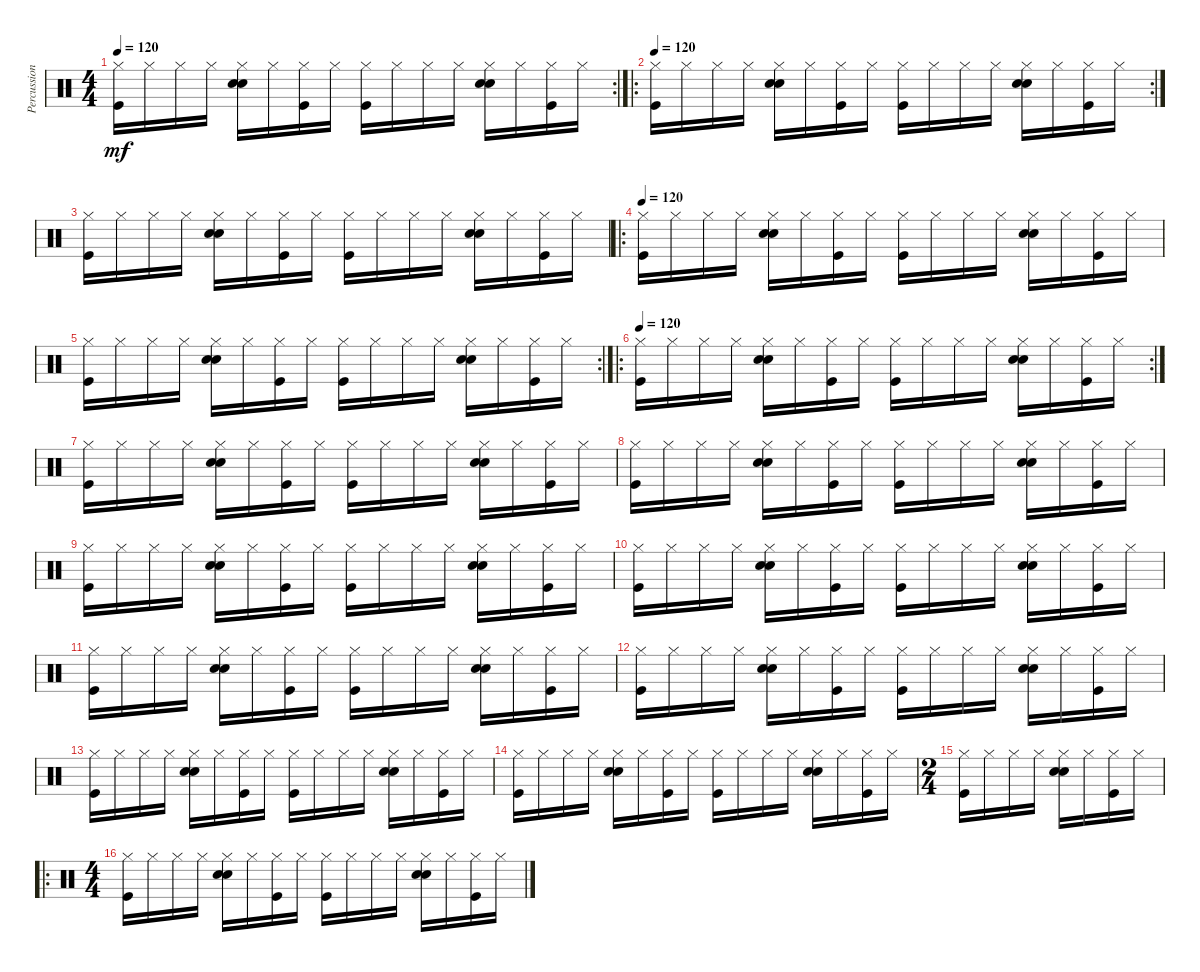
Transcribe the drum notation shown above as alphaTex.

\track ("Percussion" "Percussion") {instrument percussion}
\staff {score}
\articulation defaults
\rc 2
\ts (4 4)
\tempo 120
\clef neutral
\ks c
("Hi-Hat (closed)" "Kick (hit)").16{dy mf} "Hi-Hat (closed)".16 "Hi-Hat (closed)".16 "Hi-Hat (closed)".16 ("Hi-Hat (closed)" "Hand Clap (hit)" "Snare (hit) 2").16 "Hi-Hat (closed)".16 ("Hi-Hat (closed)" "Kick (hit)").16 "Hi-Hat (closed)".16 ("Hi-Hat (closed)" "Kick (hit)").16 "Hi-Hat (closed)".16 "Hi-Hat (closed)".16 "Hi-Hat (closed)".16 ("Hi-Hat (closed)" "Hand Clap (hit)" "Snare (hit) 2").16 "Hi-Hat (closed)".16 ("Hi-Hat (closed)" "Kick (hit)").16 "Hi-Hat (closed)".16 |
\ro
\rc 2
\tempo 120
("Hi-Hat (closed)" "Kick (hit)").16 "Hi-Hat (closed)".16 "Hi-Hat (closed)".16 "Hi-Hat (closed)".16 ("Hi-Hat (closed)" "Hand Clap (hit)" "Snare (hit) 2").16 "Hi-Hat (closed)".16 ("Hi-Hat (closed)" "Kick (hit)").16 "Hi-Hat (closed)".16 ("Hi-Hat (closed)" "Kick (hit)").16 "Hi-Hat (closed)".16 "Hi-Hat (closed)".16 "Hi-Hat (closed)".16 ("Hi-Hat (closed)" "Hand Clap (hit)" "Snare (hit) 2").16 "Hi-Hat (closed)".16 ("Hi-Hat (closed)" "Kick (hit)").16 "Hi-Hat (closed)".16 |
("Hi-Hat (closed)" "Kick (hit)").16 "Hi-Hat (closed)".16 "Hi-Hat (closed)".16 "Hi-Hat (closed)".16 ("Hi-Hat (closed)" "Hand Clap (hit)" "Snare (hit) 2").16 "Hi-Hat (closed)".16 ("Hi-Hat (closed)" "Kick (hit)").16 "Hi-Hat (closed)".16 ("Hi-Hat (closed)" "Kick (hit)").16 "Hi-Hat (closed)".16 "Hi-Hat (closed)".16 "Hi-Hat (closed)".16 ("Hi-Hat (closed)" "Hand Clap (hit)" "Snare (hit) 2").16 "Hi-Hat (closed)".16 ("Hi-Hat (closed)" "Kick (hit)").16 "Hi-Hat (closed)".16 |
\ro
\tempo 120
("Hi-Hat (closed)" "Kick (hit)").16 "Hi-Hat (closed)".16 "Hi-Hat (closed)".16 "Hi-Hat (closed)".16 ("Hi-Hat (closed)" "Hand Clap (hit)" "Snare (hit) 2").16 "Hi-Hat (closed)".16 ("Hi-Hat (closed)" "Kick (hit)").16 "Hi-Hat (closed)".16 ("Hi-Hat (closed)" "Kick (hit)").16 "Hi-Hat (closed)".16 "Hi-Hat (closed)".16 "Hi-Hat (closed)".16 ("Hi-Hat (closed)" "Hand Clap (hit)" "Snare (hit) 2").16 "Hi-Hat (closed)".16 ("Hi-Hat (closed)" "Kick (hit)").16 "Hi-Hat (closed)".16 |
\rc 2
("Hi-Hat (closed)" "Kick (hit)").16 "Hi-Hat (closed)".16 "Hi-Hat (closed)".16 "Hi-Hat (closed)".16 ("Hi-Hat (closed)" "Hand Clap (hit)" "Snare (hit) 2").16 "Hi-Hat (closed)".16 ("Hi-Hat (closed)" "Kick (hit)").16 "Hi-Hat (closed)".16 ("Hi-Hat (closed)" "Kick (hit)").16 "Hi-Hat (closed)".16 "Hi-Hat (closed)".16 "Hi-Hat (closed)".16 ("Hi-Hat (closed)" "Hand Clap (hit)" "Snare (hit) 2").16 "Hi-Hat (closed)".16 ("Hi-Hat (closed)" "Kick (hit)").16 "Hi-Hat (closed)".16 |
\ro
\rc 2
\tempo 120
("Hi-Hat (closed)" "Kick (hit)").16 "Hi-Hat (closed)".16 "Hi-Hat (closed)".16 "Hi-Hat (closed)".16 ("Hi-Hat (closed)" "Hand Clap (hit)" "Snare (hit) 2").16 "Hi-Hat (closed)".16 ("Hi-Hat (closed)" "Kick (hit)").16 "Hi-Hat (closed)".16 ("Hi-Hat (closed)" "Kick (hit)").16 "Hi-Hat (closed)".16 "Hi-Hat (closed)".16 "Hi-Hat (closed)".16 ("Hi-Hat (closed)" "Hand Clap (hit)" "Snare (hit) 2").16 "Hi-Hat (closed)".16 ("Hi-Hat (closed)" "Kick (hit)").16 "Hi-Hat (closed)".16 |
("Hi-Hat (closed)" "Kick (hit)").16 "Hi-Hat (closed)".16 "Hi-Hat (closed)".16 "Hi-Hat (closed)".16 ("Hi-Hat (closed)" "Hand Clap (hit)" "Snare (hit) 2").16 "Hi-Hat (closed)".16 ("Hi-Hat (closed)" "Kick (hit)").16 "Hi-Hat (closed)".16 ("Hi-Hat (closed)" "Kick (hit)").16 "Hi-Hat (closed)".16 "Hi-Hat (closed)".16 "Hi-Hat (closed)".16 ("Hi-Hat (closed)" "Hand Clap (hit)" "Snare (hit) 2").16 "Hi-Hat (closed)".16 ("Hi-Hat (closed)" "Kick (hit)").16 "Hi-Hat (closed)".16 |
("Hi-Hat (closed)" "Kick (hit)").16 "Hi-Hat (closed)".16 "Hi-Hat (closed)".16 "Hi-Hat (closed)".16 ("Hi-Hat (closed)" "Hand Clap (hit)" "Snare (hit) 2").16 "Hi-Hat (closed)".16 ("Hi-Hat (closed)" "Kick (hit)").16 "Hi-Hat (closed)".16 ("Hi-Hat (closed)" "Kick (hit)").16 "Hi-Hat (closed)".16 "Hi-Hat (closed)".16 "Hi-Hat (closed)".16 ("Hi-Hat (closed)" "Hand Clap (hit)" "Snare (hit) 2").16 "Hi-Hat (closed)".16 ("Hi-Hat (closed)" "Kick (hit)").16 "Hi-Hat (closed)".16 |
("Hi-Hat (closed)" "Kick (hit)").16 "Hi-Hat (closed)".16 "Hi-Hat (closed)".16 "Hi-Hat (closed)".16 ("Hi-Hat (closed)" "Hand Clap (hit)" "Snare (hit) 2").16 "Hi-Hat (closed)".16 ("Hi-Hat (closed)" "Kick (hit)").16 "Hi-Hat (closed)".16 ("Hi-Hat (closed)" "Kick (hit)").16 "Hi-Hat (closed)".16 "Hi-Hat (closed)".16 "Hi-Hat (closed)".16 ("Hi-Hat (closed)" "Hand Clap (hit)" "Snare (hit) 2").16 "Hi-Hat (closed)".16 ("Hi-Hat (closed)" "Kick (hit)").16 "Hi-Hat (closed)".16 |
("Hi-Hat (closed)" "Kick (hit)").16 "Hi-Hat (closed)".16 "Hi-Hat (closed)".16 "Hi-Hat (closed)".16 ("Hi-Hat (closed)" "Hand Clap (hit)" "Snare (hit) 2").16 "Hi-Hat (closed)".16 ("Hi-Hat (closed)" "Kick (hit)").16 "Hi-Hat (closed)".16 ("Hi-Hat (closed)" "Kick (hit)").16 "Hi-Hat (closed)".16 "Hi-Hat (closed)".16 "Hi-Hat (closed)".16 ("Hi-Hat (closed)" "Hand Clap (hit)" "Snare (hit) 2").16 "Hi-Hat (closed)".16 ("Hi-Hat (closed)" "Kick (hit)").16 "Hi-Hat (closed)".16 |
("Hi-Hat (closed)" "Kick (hit)").16 "Hi-Hat (closed)".16 "Hi-Hat (closed)".16 "Hi-Hat (closed)".16 ("Hi-Hat (closed)" "Hand Clap (hit)" "Snare (hit) 2").16 "Hi-Hat (closed)".16 ("Hi-Hat (closed)" "Kick (hit)").16 "Hi-Hat (closed)".16 ("Hi-Hat (closed)" "Kick (hit)").16 "Hi-Hat (closed)".16 "Hi-Hat (closed)".16 "Hi-Hat (closed)".16 ("Hi-Hat (closed)" "Hand Clap (hit)" "Snare (hit) 2").16 "Hi-Hat (closed)".16 ("Hi-Hat (closed)" "Kick (hit)").16 "Hi-Hat (closed)".16 |
("Hi-Hat (closed)" "Kick (hit)").16 "Hi-Hat (closed)".16 "Hi-Hat (closed)".16 "Hi-Hat (closed)".16 ("Hi-Hat (closed)" "Hand Clap (hit)" "Snare (hit) 2").16 "Hi-Hat (closed)".16 ("Hi-Hat (closed)" "Kick (hit)").16 "Hi-Hat (closed)".16 ("Hi-Hat (closed)" "Kick (hit)").16 "Hi-Hat (closed)".16 "Hi-Hat (closed)".16 "Hi-Hat (closed)".16 ("Hi-Hat (closed)" "Hand Clap (hit)" "Snare (hit) 2").16 "Hi-Hat (closed)".16 ("Hi-Hat (closed)" "Kick (hit)").16 "Hi-Hat (closed)".16 |
("Hi-Hat (closed)" "Kick (hit)").16 "Hi-Hat (closed)".16 "Hi-Hat (closed)".16 "Hi-Hat (closed)".16 ("Hi-Hat (closed)" "Hand Clap (hit)" "Snare (hit) 2").16 "Hi-Hat (closed)".16 ("Hi-Hat (closed)" "Kick (hit)").16 "Hi-Hat (closed)".16 ("Hi-Hat (closed)" "Kick (hit)").16 "Hi-Hat (closed)".16 "Hi-Hat (closed)".16 "Hi-Hat (closed)".16 ("Hi-Hat (closed)" "Hand Clap (hit)" "Snare (hit) 2").16 "Hi-Hat (closed)".16 ("Hi-Hat (closed)" "Kick (hit)").16 "Hi-Hat (closed)".16 |
("Hi-Hat (closed)" "Kick (hit)").16 "Hi-Hat (closed)".16 "Hi-Hat (closed)".16 "Hi-Hat (closed)".16 ("Hi-Hat (closed)" "Hand Clap (hit)" "Snare (hit) 2").16 "Hi-Hat (closed)".16 ("Hi-Hat (closed)" "Kick (hit)").16 "Hi-Hat (closed)".16 ("Hi-Hat (closed)" "Kick (hit)").16 "Hi-Hat (closed)".16 "Hi-Hat (closed)".16 "Hi-Hat (closed)".16 ("Hi-Hat (closed)" "Hand Clap (hit)" "Snare (hit) 2").16 "Hi-Hat (closed)".16 ("Hi-Hat (closed)" "Kick (hit)").16 "Hi-Hat (closed)".16 |
\ts (2 4)
("Hi-Hat (closed)" "Kick (hit)").16 "Hi-Hat (closed)".16 "Hi-Hat (closed)".16 "Hi-Hat (closed)".16 ("Hi-Hat (closed)" "Hand Clap (hit)" "Snare (hit) 2").16 "Hi-Hat (closed)".16 ("Hi-Hat (closed)" "Kick (hit)").16 "Hi-Hat (closed)".16 |
\ro
\ts (4 4)
("Hi-Hat (closed)" "Kick (hit)").16 "Hi-Hat (closed)".16 "Hi-Hat (closed)".16 "Hi-Hat (closed)".16 ("Hi-Hat (closed)" "Hand Clap (hit)" "Snare (hit) 2").16 "Hi-Hat (closed)".16 ("Hi-Hat (closed)" "Kick (hit)").16 "Hi-Hat (closed)".16 ("Hi-Hat (closed)" "Kick (hit)").16 "Hi-Hat (closed)".16 "Hi-Hat (closed)".16 "Hi-Hat (closed)".16 ("Hi-Hat (closed)" "Hand Clap (hit)" "Snare (hit) 2").16 "Hi-Hat (closed)".16 ("Hi-Hat (closed)" "Kick (hit)").16 "Hi-Hat (closed)".16
